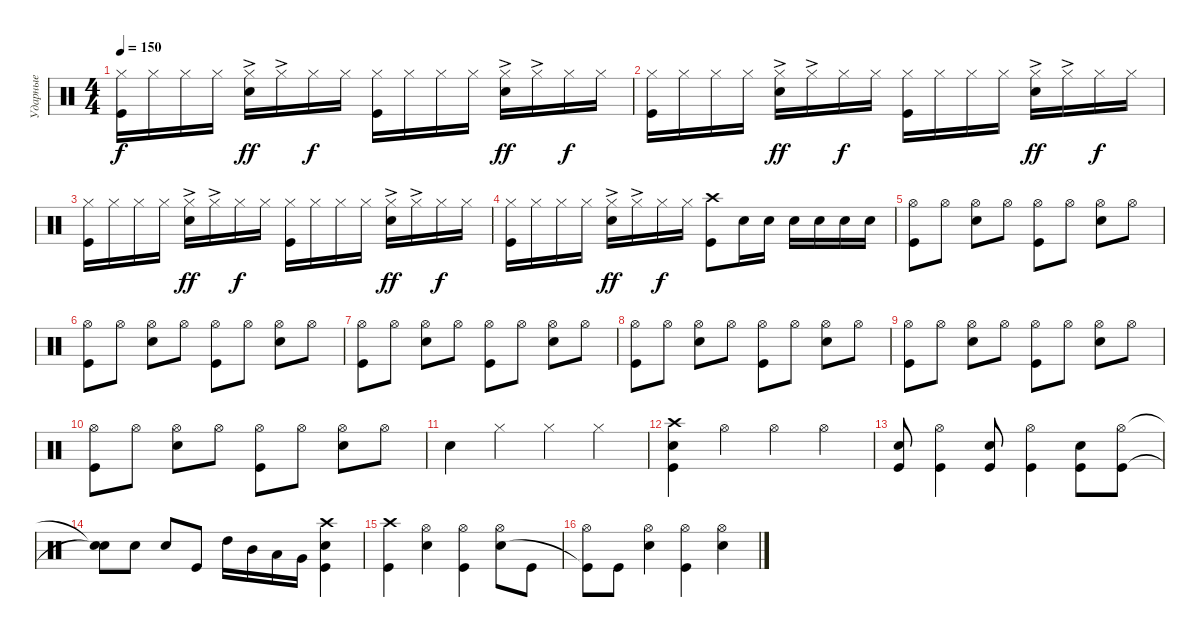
\track ("Ударные" "Ударные") {instrument percussion}
\staff {score}
\articulation defaults
\ts (4 4)
\tempo 150
\clef neutral
\ks c
("Hi-Hat (closed)" "Kick (hit)").16{dy f} "Hi-Hat (closed)".16 "Hi-Hat (closed)".16 "Hi-Hat (closed)".16 ("Hi-Hat (closed)"{ac} "Snare (hit) 2").16{dy ff} "Hi-Hat (closed)"{ac}.16 "Hi-Hat (closed)".16{dy f} "Hi-Hat (closed)".16 ("Hi-Hat (closed)" "Kick (hit)").16 "Hi-Hat (closed)".16 "Hi-Hat (closed)".16 "Hi-Hat (closed)".16 ("Hi-Hat (closed)"{ac} "Snare (hit) 2").16{dy ff} "Hi-Hat (closed)"{ac}.16 "Hi-Hat (closed)".16{dy f} "Hi-Hat (closed)".16 |
("Hi-Hat (closed)" "Kick (hit)").16 "Hi-Hat (closed)".16 "Hi-Hat (closed)".16 "Hi-Hat (closed)".16 ("Hi-Hat (closed)"{ac} "Snare (hit) 2").16{dy ff} "Hi-Hat (closed)"{ac}.16 "Hi-Hat (closed)".16{dy f} "Hi-Hat (closed)".16 ("Hi-Hat (closed)" "Kick (hit)").16 "Hi-Hat (closed)".16 "Hi-Hat (closed)".16 "Hi-Hat (closed)".16 ("Hi-Hat (closed)"{ac} "Snare (hit) 2").16{dy ff} "Hi-Hat (closed)"{ac}.16 "Hi-Hat (closed)".16{dy f} "Hi-Hat (closed)".16 |
("Hi-Hat (closed)" "Kick (hit)").16 "Hi-Hat (closed)".16 "Hi-Hat (closed)".16 "Hi-Hat (closed)".16 ("Hi-Hat (closed)"{ac} "Snare (hit) 2").16{dy ff} "Hi-Hat (closed)"{ac}.16 "Hi-Hat (closed)".16{dy f} "Hi-Hat (closed)".16 ("Hi-Hat (closed)" "Kick (hit)").16 "Hi-Hat (closed)".16 "Hi-Hat (closed)".16 "Hi-Hat (closed)".16 ("Hi-Hat (closed)"{ac} "Snare (hit) 2").16{dy ff} "Hi-Hat (closed)"{ac}.16 "Hi-Hat (closed)".16{dy f} "Hi-Hat (closed)".16 |
("Hi-Hat (closed)" "Kick (hit)").16 "Hi-Hat (closed)".16 "Hi-Hat (closed)".16 "Hi-Hat (closed)".16 ("Hi-Hat (closed)"{ac} "Snare (hit) 2").16{dy ff} "Hi-Hat (closed)"{ac}.16 "Hi-Hat (closed)".16{dy f} "Hi-Hat (closed)".16 ("Crash high (hit)" "Kick (hit)").8 "Snare (hit) 2".16 "Snare (hit) 2".16 "Snare (hit) 2".16 "Snare (hit) 2".16 "Snare (hit) 2".16 "Snare (hit) 2".16 |
("Hi-Hat (open)" "Kick (hit)").8 "Hi-Hat (open)".8 ("Hi-Hat (open)" "Snare (hit) 2").8 "Hi-Hat (open)".8 ("Hi-Hat (open)" "Kick (hit)").8 "Hi-Hat (open)".8 ("Hi-Hat (open)" "Snare (hit) 2").8 "Hi-Hat (open)".8 |
("Hi-Hat (open)" "Kick (hit)").8 "Hi-Hat (open)".8 ("Hi-Hat (open)" "Snare (hit) 2").8 "Hi-Hat (open)".8 ("Hi-Hat (open)" "Kick (hit)").8 "Hi-Hat (open)".8 ("Hi-Hat (open)" "Snare (hit) 2").8 "Hi-Hat (open)".8 |
("Hi-Hat (open)" "Kick (hit)").8 "Hi-Hat (open)".8 ("Hi-Hat (open)" "Snare (hit) 2").8 "Hi-Hat (open)".8 ("Hi-Hat (open)" "Kick (hit)").8 "Hi-Hat (open)".8 ("Hi-Hat (open)" "Snare (hit) 2").8 "Hi-Hat (open)".8 |
("Hi-Hat (open)" "Kick (hit)").8 "Hi-Hat (open)".8 ("Hi-Hat (open)" "Snare (hit) 2").8 "Hi-Hat (open)".8 ("Hi-Hat (open)" "Kick (hit)").8 "Hi-Hat (open)".8 ("Hi-Hat (open)" "Snare (hit) 2").8 "Hi-Hat (open)".8 |
("Hi-Hat (open)" "Kick (hit)").8 "Hi-Hat (open)".8 ("Hi-Hat (open)" "Snare (hit) 2").8 "Hi-Hat (open)".8 ("Hi-Hat (open)" "Kick (hit)").8 "Hi-Hat (open)".8 ("Hi-Hat (open)" "Snare (hit) 2").8 "Hi-Hat (open)".8 |
("Hi-Hat (open)" "Kick (hit)").8 "Hi-Hat (open)".8 ("Hi-Hat (open)" "Snare (hit) 2").8 "Hi-Hat (open)".8 ("Hi-Hat (open)" "Kick (hit)").8 "Hi-Hat (open)".8 ("Hi-Hat (open)" "Snare (hit) 2").8 "Hi-Hat (open)".8 |
"Snare (hit) 2".4 "Hi-Hat (closed)".4 "Hi-Hat (closed)".4 "Hi-Hat (closed)".4 |
("Crash high (hit)" "Snare (hit) 2" "Kick (hit)").4 "Hi-Hat (open)".4 "Hi-Hat (open)".4 "Hi-Hat (open)".4 |
("Kick (hit)" "Snare (hit) 2").8 ("Hi-Hat (open)" "Kick (hit)").4 ("Kick (hit)" "Snare (hit) 2").8 ("Hi-Hat (open)" "Kick (hit)").4 ("Kick (hit)" "Snare (hit) 2").8 ("Hi-Hat (open)" "Kick (hit)").8 |
("Snare (hit)"{t} "Snare (hit)"{t}).8 "Snare (hit) 2".8 "Snare (hit) 2".8 "Kick (hit)".8 "High Tom (hit)".16 "Mid Tom (hit)".16 "Low Tom (hit)".16 "Very Low Tom (hit)".16 ("Crash high (hit)" "Kick (hit)" "Snare (hit) 2").4 |
("Crash high (hit)" "Kick (hit)").4 ("Hi-Hat (open)" "Snare (hit) 2").4 ("Hi-Hat (open)" "Kick (hit)").4 ("Hi-Hat (open)" "Snare (hit) 2").8 "Kick (hit)".8 |
("Hi-Hat (open)" "Kick (hit)"{t}).8 "Kick (hit)".8 ("Hi-Hat (open)" "Snare (hit) 2").4 ("Hi-Hat (open)" "Kick (hit)").4 ("Hi-Hat (open)" "Snare (hit) 2").4
